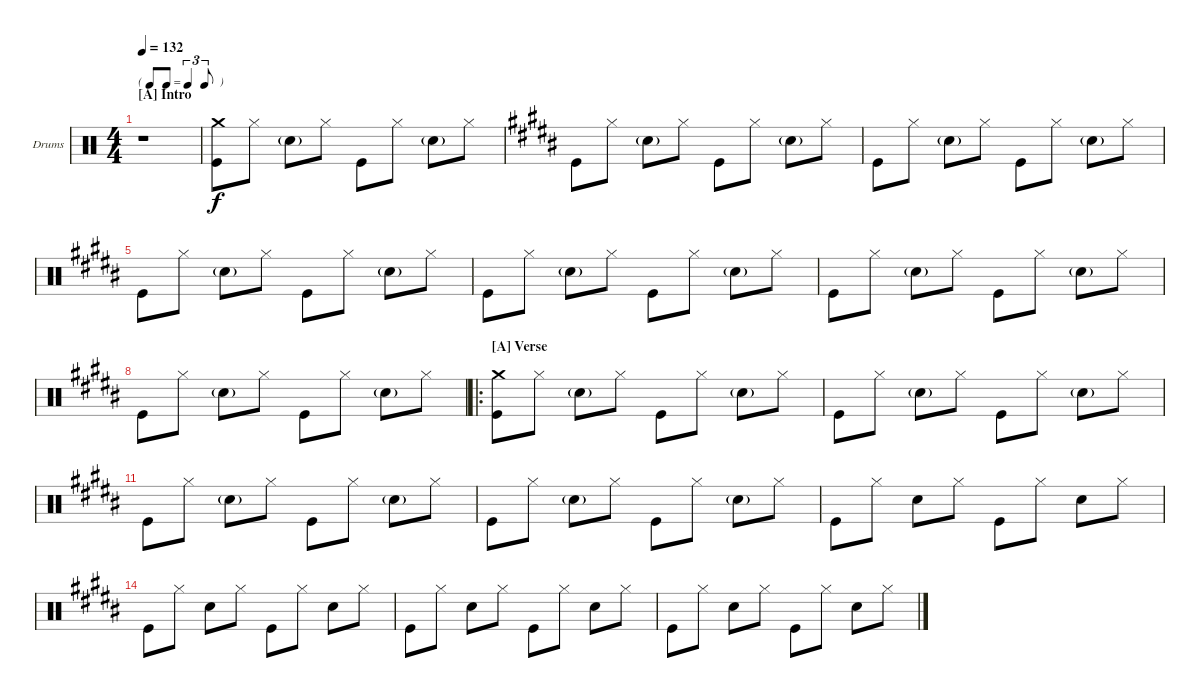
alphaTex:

\bracketExtendMode nobrackets
\firstSystemTrackNameOrientation horizontal
\otherSystemsTrackNameOrientation horizontal
\defaultBarNumberDisplay FirstOfSystem
\track ("Drumkit" "Drums") {instrument percussion}
\staff {score}
\articulation defaults
\ts (4 4)
\beaming (8 2 2 2 2)
\tf triplet8th
\section ("A" "Intro")
\scale
0.350649
\tempo 132
\accidentals auto
\clef neutral
\ottava regular
\simile none
\ks c
r.1{dy f} |
\scale
0.181818 ("Kick (hit)" "Crash medium (hit)").8 "Hi-Hat (closed)".8 "Snare (hit) 2"{g}.8 "Hi-Hat (closed)".8 "Kick (hit)".8 "Hi-Hat (closed)".8 "Snare (hit) 2"{g}.8 "Hi-Hat (closed)".8 |
\scale
0.285714
\ks b "Kick (hit)".8 "Hi-Hat (closed)".8 "Snare (hit) 2"{g}.8 "Hi-Hat (closed)".8 "Kick (hit)".8 "Hi-Hat (closed)".8 "Snare (hit) 2"{g}.8 "Hi-Hat (closed)".8
|
\scale
0.181818 "Kick (hit)".8 "Hi-Hat (closed)".8 "Snare (hit) 2"{g}.8 "Hi-Hat (closed)".8 "Kick (hit)".8 "Hi-Hat (closed)".8 "Snare (hit) 2"{g}.8 "Hi-Hat (closed)".8 |
\scale
0.305556 "Kick (hit)".8 "Hi-Hat (closed)".8 "Snare (hit) 2"{g}.8 "Hi-Hat (closed)".8 "Kick (hit)".8 "Hi-Hat (closed)".8 "Snare (hit) 2"{g}.8 "Hi-Hat (closed)".8 |
\scale
0.194444 "Kick (hit)".8 "Hi-Hat (closed)".8 "Snare (hit) 2"{g}.8 "Hi-Hat (closed)".8 "Kick (hit)".8 "Hi-Hat (closed)".8 "Snare (hit) 2"{g}.8 "Hi-Hat (closed)".8 |
\scale
0.305556 "Kick (hit)".8 "Hi-Hat (closed)".8 "Snare (hit) 2"{g}.8 "Hi-Hat (closed)".8 "Kick (hit)".8 "Hi-Hat (closed)".8 "Snare (hit) 2"{g}.8 "Hi-Hat (closed)".8 |
\scale
0.194444 "Kick (hit)".8 "Hi-Hat (closed)".8 "Snare (hit) 2"{g}.8 "Hi-Hat (closed)".8 "Kick (hit)".8 "Hi-Hat (closed)".8 "Snare (hit) 2"{g}.8 "Hi-Hat (closed)".8 |
\ro
\section ("A" "Verse")
\scale
0.315068 ("Kick (hit)" "Crash medium (hit)").8 "Hi-Hat (closed)".8 "Snare (hit) 2"{g}.8 "Hi-Hat (closed)".8 "Kick (hit)".8 "Hi-Hat (closed)".8 "Snare (hit) 2"{g}.8 "Hi-Hat (closed)".8 |
\scale
0.191781 "Kick (hit)".8 "Hi-Hat (closed)".8 "Snare (hit) 2"{g}.8 "Hi-Hat (closed)".8 "Kick (hit)".8 "Hi-Hat (closed)".8 "Snare (hit) 2"{g}.8 "Hi-Hat (closed)".8 |
\scale
0.30137 "Kick (hit)".8 "Hi-Hat (closed)".8 "Snare (hit) 2"{g}.8 "Hi-Hat (closed)".8 "Kick (hit)".8 "Hi-Hat (closed)".8 "Snare (hit) 2"{g}.8 "Hi-Hat (closed)".8 |
\scale
0.191781 "Kick (hit)".8 "Hi-Hat (closed)".8 "Snare (hit) 2"{g}.8 "Hi-Hat (closed)".8 "Kick (hit)".8 "Hi-Hat (closed)".8 "Snare (hit) 2"{g}.8 "Hi-Hat (closed)".8 |
\scale
0.305556 "Kick (hit)".8 "Hi-Hat (closed)".8 "Snare (hit) 2".8 "Hi-Hat (closed)".8 "Kick (hit)".8 "Hi-Hat (closed)".8 "Snare (hit) 2".8 "Hi-Hat (closed)".8 |
\scale
0.194444 "Kick (hit)".8 "Hi-Hat (closed)".8 "Snare (hit) 2".8 "Hi-Hat (closed)".8 "Kick (hit)".8 "Hi-Hat (closed)".8 "Snare (hit) 2".8 "Hi-Hat (closed)".8 |
\scale
0.305556 "Kick (hit)".8 "Hi-Hat (closed)".8 "Snare (hit) 2".8 "Hi-Hat (closed)".8 "Kick (hit)".8 "Hi-Hat (closed)".8 "Snare (hit) 2".8 "Hi-Hat (closed)".8 |
\scale
0.194444 "Kick (hit)".8 "Hi-Hat (closed)".8 "Snare (hit) 2".8 "Hi-Hat (closed)".8 "Kick (hit)".8 "Hi-Hat (closed)".8 "Snare (hit) 2".8 "Hi-Hat (closed)".8
